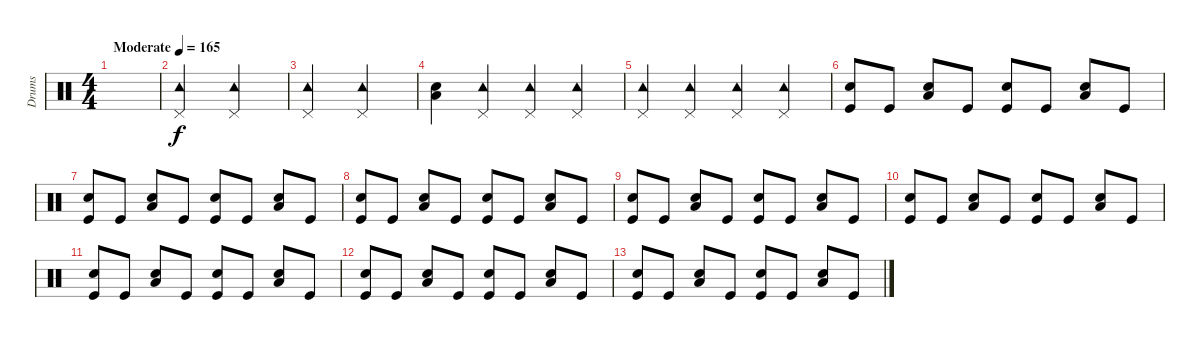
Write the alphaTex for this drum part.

\track ("Drums" "Drums") {instrument percussion}
\staff {score}
\articulation defaults
\ts (4 4)
\tempo (165 "Moderate")
\clef neutral
\ks c
|
("Tambourine (hit)" "Pedal Hi-Hat (hit)").2 ("Tambourine (hit)" "Pedal Hi-Hat (hit)").2 |
("Tambourine (hit)" "Pedal Hi-Hat (hit)").2 ("Tambourine (hit)" "Pedal Hi-Hat (hit)").2 |
("Snare (hit) 2" "Low Floor Tom (hit)").4 ("Tambourine (hit)" "Pedal Hi-Hat (hit)").4 ("Tambourine (hit)" "Pedal Hi-Hat (hit)").4 ("Tambourine (hit)" "Pedal Hi-Hat (hit)").4 |
("Tambourine (hit)" "Pedal Hi-Hat (hit)").4 ("Tambourine (hit)" "Pedal Hi-Hat (hit)").4 ("Tambourine (hit)" "Pedal Hi-Hat (hit)").4 ("Tambourine (hit)" "Pedal Hi-Hat (hit)").4 |
("Snare (hit) 2" "Kick (hit)").8 "Kick (hit)".8 ("Snare (hit) 2" "Low Floor Tom (hit)").8 "Kick (hit)".8 ("Snare (hit) 2" "Kick (hit)").8 "Kick (hit)".8 ("Snare (hit) 2" "Low Floor Tom (hit)").8 "Kick (hit)".8 |
("Snare (hit) 2" "Kick (hit)").8 "Kick (hit)".8 ("Snare (hit) 2" "Low Floor Tom (hit)").8 "Kick (hit)".8 ("Snare (hit) 2" "Kick (hit)").8 "Kick (hit)".8 ("Snare (hit) 2" "Low Floor Tom (hit)").8 "Kick (hit)".8 |
("Snare (hit) 2" "Kick (hit)").8 "Kick (hit)".8 ("Snare (hit) 2" "Low Floor Tom (hit)").8 "Kick (hit)".8 ("Snare (hit) 2" "Kick (hit)").8 "Kick (hit)".8 ("Snare (hit) 2" "Low Floor Tom (hit)").8 "Kick (hit)".8 |
("Snare (hit) 2" "Kick (hit)").8 "Kick (hit)".8 ("Snare (hit) 2" "Low Floor Tom (hit)").8 "Kick (hit)".8 ("Snare (hit) 2" "Kick (hit)").8 "Kick (hit)".8 ("Snare (hit) 2" "Low Floor Tom (hit)").8 "Kick (hit)".8 |
("Snare (hit) 2" "Kick (hit)").8 "Kick (hit)".8 ("Snare (hit) 2" "Low Floor Tom (hit)").8 "Kick (hit)".8 ("Snare (hit) 2" "Kick (hit)").8 "Kick (hit)".8 ("Snare (hit) 2" "Low Floor Tom (hit)").8 "Kick (hit)".8 |
("Snare (hit) 2" "Kick (hit)").8 "Kick (hit)".8 ("Snare (hit) 2" "Low Floor Tom (hit)").8 "Kick (hit)".8 ("Snare (hit) 2" "Kick (hit)").8 "Kick (hit)".8 ("Snare (hit) 2" "Low Floor Tom (hit)").8 "Kick (hit)".8 |
("Snare (hit) 2" "Kick (hit)").8 "Kick (hit)".8 ("Snare (hit) 2" "Low Floor Tom (hit)").8 "Kick (hit)".8 ("Snare (hit) 2" "Kick (hit)").8 "Kick (hit)".8 ("Snare (hit) 2" "Low Floor Tom (hit)").8 "Kick (hit)".8 |
("Snare (hit) 2" "Kick (hit)").8 "Kick (hit)".8 ("Snare (hit) 2" "Low Floor Tom (hit)").8 "Kick (hit)".8 ("Snare (hit) 2" "Kick (hit)").8 "Kick (hit)".8 ("Snare (hit) 2" "Low Floor Tom (hit)").8 "Kick (hit)".8
